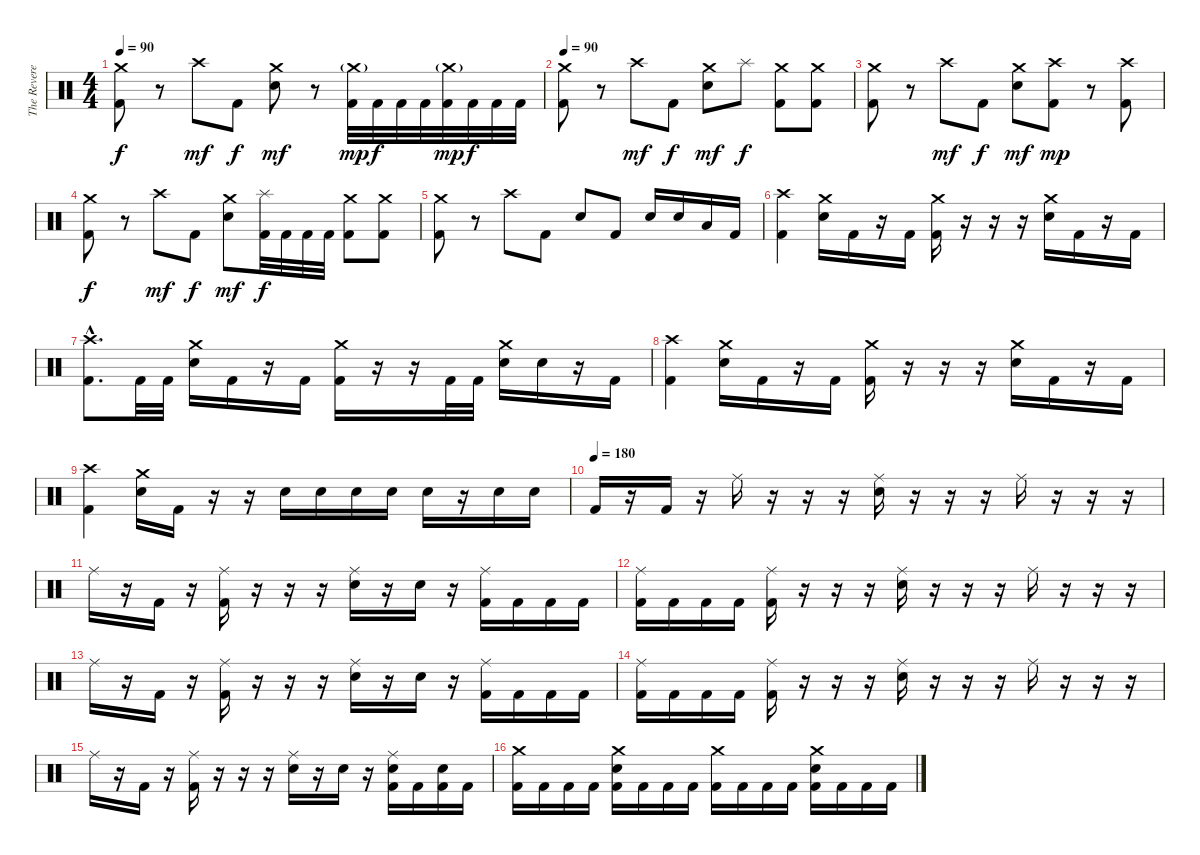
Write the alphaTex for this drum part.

\track ("The Reverend" "The Revere") {instrument percussion}
\staff {score}
\articulation defaults
\ts (4 4)
\tempo 90
\clef neutral
\ks c
("Crash medium (hit)" "Kick (hit) 2").8{dy f} r.8 "Crash high (hit)".8{dy mf} "Kick (hit) 2".8{dy f} ("Crash medium (hit)" "Snare (hit) 2").8{dy mf} r.8 ("Crash medium (hit)"{g} "Kick (hit) 2").32{dy mp} "Kick (hit) 2".32{dy f} "Kick (hit) 2".32 "Kick (hit) 2".32 ("Crash medium (hit)"{g} "Kick (hit) 2").32{dy mp} "Kick (hit) 2".32{dy f} "Kick (hit) 2".32 "Kick (hit) 2".32 |
\tempo 90
("Crash medium (hit)" "Kick (hit) 2").8 r.8 "Crash high (hit)".8{dy mf} "Kick (hit) 2".8{dy f} ("Crash medium (hit)" "Snare (hit) 2").8{dy mf} "Splash (hit)".8{dy f} ("Crash medium (hit)" "Kick (hit) 2").8 ("Crash medium (hit)" "Kick (hit) 2").8 |
("Crash medium (hit)" "Kick (hit) 2").8 r.8 "Crash high (hit)".8{dy mf} "Kick (hit) 2".8{dy f} ("Crash medium (hit)" "Snare (hit) 2").8{dy mf} ("Crash high (hit)" "Kick (hit) 2").8{dy mp} r.8 ("Crash high (hit)" "Kick (hit) 2").8 |
("Crash medium (hit)" "Kick (hit) 2").8{dy f} r.8 "Crash high (hit)".8{dy mf} "Kick (hit) 2".8{dy f} ("Crash medium (hit)" "Snare (hit) 2").8{dy mf} ("Splash (hit)" "Kick (hit) 2").32{dy f} "Kick (hit) 2".32 "Kick (hit) 2".32 "Kick (hit) 2".32 ("Crash medium (hit)" "Kick (hit) 2").8 ("Crash medium (hit)" "Kick (hit) 2").8 |
("Crash medium (hit)" "Kick (hit) 2").8 r.8 "Crash high (hit)".8 "Kick (hit) 2".8 "Snare (hit) 2".8 "Kick (hit) 2".8 "Snare (hit) 2".16 "Snare (hit) 2".16 "Low Floor Tom (hit)".16 "Kick (hit) 2".16 |
("Crash high (hit)" "Kick (hit) 2").4 ("Crash medium (hit)" "Snare (hit) 2").16 "Kick (hit) 2".16 r.16 "Kick (hit) 2".16 ("Crash medium (hit)" "Kick (hit) 2").16 r.16 r.16 r.16 ("Crash medium (hit)" "Snare (hit) 2").16 "Kick (hit) 2".16 r.16 "Kick (hit) 2".16 |
("Crash high (hit)"{hac} "Kick (hit) 2"{hac}).8{d} "Kick (hit) 2".32 "Kick (hit) 2".32 ("Crash medium (hit)" "Snare (hit) 2").16 "Kick (hit) 2".16 r.16 "Kick (hit) 2".16 ("Crash medium (hit)" "Kick (hit) 2").16 r.16 r.16 "Kick (hit) 2".32 "Kick (hit) 2".32 ("Crash medium (hit)" "Snare (hit) 2").16 "Snare (hit) 2".16 r.16 "Kick (hit) 2".16 |
("Crash high (hit)" "Kick (hit) 2").4 ("Crash medium (hit)" "Snare (hit) 2").16 "Kick (hit) 2".16 r.16 "Kick (hit) 2".16 ("Crash medium (hit)" "Kick (hit) 2").16 r.16 r.16 r.16 ("Crash medium (hit)" "Snare (hit) 2").16 "Kick (hit) 2".16 r.16 "Kick (hit) 2".16 |
("Crash high (hit)" "Kick (hit) 2").4 ("Crash medium (hit)" "Snare (hit) 2").16 "Kick (hit) 2".16 r.16 r.16 "Snare (hit) 2".16 "Snare (hit) 2".16 "Snare (hit) 2".16 "Snare (hit) 2".16 "Snare (hit) 2".16 r.16 "Snare (hit) 2".16 "Snare (hit) 2".16 |
\tempo (180)
"Kick (hit) 2".16 r.16 "Kick (hit) 2".16 r.16 "Ride (middle)".16 r.16 r.16 r.16 ("Ride (middle)" "Snare (hit) 2").16 r.16 r.16 r.16 "Ride (middle)".16 r.16 r.16 r.16 |
"Ride (middle)".16 r.16 "Kick (hit) 2".16 r.16 ("Ride (middle)" "Kick (hit) 2").16 r.16 r.16 r.16 ("Ride (middle)" "Snare (hit) 2").16 r.16 "Snare (hit) 2".16 r.16 ("Ride (middle)" "Kick (hit) 2").16 "Kick (hit) 2".16 "Kick (hit) 2".16 "Kick (hit) 2".16 |
("Ride (middle)" "Kick (hit) 2").16 "Kick (hit) 2".16 "Kick (hit) 2".16 "Kick (hit) 2".16 ("Ride (middle)" "Kick (hit) 2").16 r.16 r.16 r.16 ("Ride (middle)" "Snare (hit) 2").16 r.16 r.16 r.16 "Ride (middle)".16 r.16 r.16 r.16 |
"Ride (middle)".16 r.16 "Kick (hit) 2".16 r.16 ("Ride (middle)" "Kick (hit) 2").16 r.16 r.16 r.16 ("Ride (middle)" "Snare (hit) 2").16 r.16 "Snare (hit) 2".16 r.16 ("Ride (middle)" "Kick (hit) 2").16 "Kick (hit) 2".16 "Kick (hit) 2".16 "Kick (hit) 2".16 |
("Ride (middle)" "Kick (hit) 2").16 "Kick (hit) 2".16 "Kick (hit) 2".16 "Kick (hit) 2".16 ("Ride (middle)" "Kick (hit) 2").16 r.16 r.16 r.16 ("Ride (middle)" "Snare (hit) 2").16 r.16 r.16 r.16 "Ride (middle)".16 r.16 r.16 r.16 |
"Ride (middle)".16 r.16 "Kick (hit) 2".16 r.16 ("Ride (middle)" "Kick (hit) 2").16 r.16 r.16 r.16 ("Ride (middle)" "Snare (hit) 2").16 r.16 "Snare (hit) 2".16 r.16 ("Ride (middle)" "Snare (hit) 2" "Kick (hit) 2").16 "Kick (hit) 2".16 ("Snare (hit) 2" "Kick (hit) 2").16 "Kick (hit) 2".16 |
("Crash medium (hit)" "Kick (hit) 2").16 "Kick (hit) 2".16 "Kick (hit) 2".16 "Kick (hit) 2".16 ("Crash medium (hit)" "Snare (hit) 2" "Kick (hit) 2").16 "Kick (hit) 2".16 "Kick (hit) 2".16 "Kick (hit) 2".16 ("Crash medium (hit)" "Kick (hit) 2").16 "Kick (hit) 2".16 "Kick (hit) 2".16 "Kick (hit) 2".16 ("Crash medium (hit)" "Snare (hit) 2" "Kick (hit) 2").16 "Kick (hit) 2".16 "Kick (hit) 2".16 "Kick (hit) 2".16
